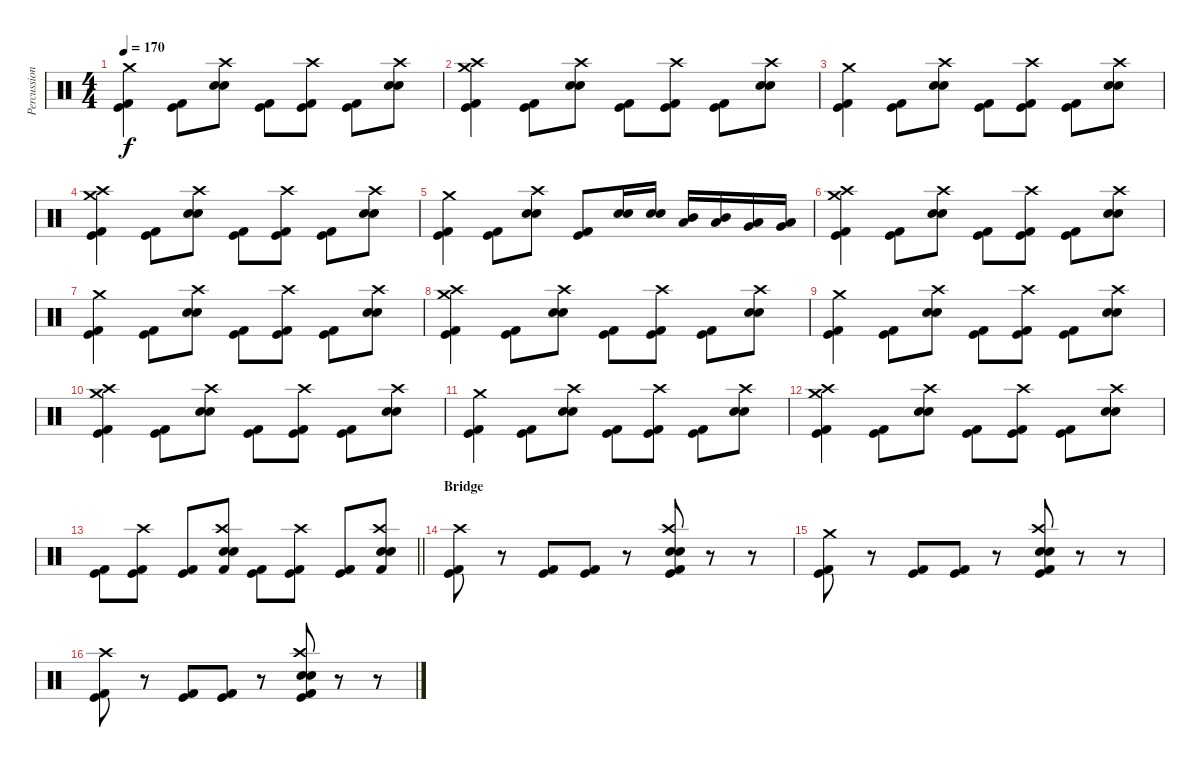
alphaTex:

\track ("Percussion" "Percussion") {instrument percussion}
\staff {score}
\articulation defaults
\ts (4 4)
\tempo 170
\clef neutral
\ks c
("Crash medium (hit)" "Kick (hit)" "Kick (hit) 2").4{dy f} ("Kick (hit)" "Kick (hit) 2").8 ("Crash high (hit)" "Snare (hit) 2" "Electric Snare (hit)").8 ("Kick (hit)" "Kick (hit) 2").8 ("Crash high (hit)" "Kick (hit)" "Kick (hit) 2").8 ("Kick (hit)" "Kick (hit) 2").8 ("Crash high (hit)" "Snare (hit) 2" "Electric Snare (hit)").8 |
("Crash medium (hit)" "Crash high (hit)" "Kick (hit)" "Kick (hit) 2").4 ("Kick (hit)" "Kick (hit) 2").8 ("Crash high (hit)" "Snare (hit) 2" "Electric Snare (hit)").8 ("Kick (hit)" "Kick (hit) 2").8 ("Crash high (hit)" "Kick (hit)" "Kick (hit) 2").8 ("Kick (hit)" "Kick (hit) 2").8 ("Crash high (hit)" "Snare (hit) 2" "Electric Snare (hit)").8 |
("Crash medium (hit)" "Kick (hit)" "Kick (hit) 2").4 ("Kick (hit)" "Kick (hit) 2").8 ("Crash high (hit)" "Snare (hit) 2" "Electric Snare (hit)").8 ("Kick (hit)" "Kick (hit) 2").8 ("Crash high (hit)" "Kick (hit)" "Kick (hit) 2").8 ("Kick (hit)" "Kick (hit) 2").8 ("Crash high (hit)" "Snare (hit) 2" "Electric Snare (hit)").8 |
("Crash medium (hit)" "Crash high (hit)" "Kick (hit)" "Kick (hit) 2").4 ("Kick (hit)" "Kick (hit) 2").8 ("Crash high (hit)" "Snare (hit) 2" "Electric Snare (hit)").8 ("Kick (hit)" "Kick (hit) 2").8 ("Crash high (hit)" "Kick (hit)" "Kick (hit) 2").8 ("Kick (hit)" "Kick (hit) 2").8 ("Crash high (hit)" "Snare (hit) 2" "Electric Snare (hit)").8 |
("Crash medium (hit)" "Kick (hit)" "Kick (hit) 2").4 ("Kick (hit)" "Kick (hit) 2").8 ("Crash high (hit)" "Snare (hit) 2" "Electric Snare (hit)").8 ("Kick (hit)" "Kick (hit) 2").8 ("Snare (hit) 2" "Electric Snare (hit)").16 ("Snare (hit) 2" "Electric Snare (hit)").16 ("Low Tom (hit)" "Mid Tom (hit)").16 ("Low Tom (hit)" "Mid Tom (hit)").16 ("Very Low Tom (hit)" "Low Tom (hit)").16 ("Very Low Tom (hit)" "Low Tom (hit)").16 |
("Crash medium (hit)" "Crash high (hit)" "Kick (hit)" "Kick (hit) 2").4 ("Kick (hit)" "Kick (hit) 2").8 ("Crash high (hit)" "Snare (hit) 2" "Electric Snare (hit)").8 ("Kick (hit)" "Kick (hit) 2").8 ("Crash high (hit)" "Kick (hit)" "Kick (hit) 2").8 ("Kick (hit)" "Kick (hit) 2").8 ("Crash high (hit)" "Snare (hit) 2" "Electric Snare (hit)").8 |
("Crash medium (hit)" "Kick (hit)" "Kick (hit) 2").4 ("Kick (hit)" "Kick (hit) 2").8 ("Crash high (hit)" "Snare (hit) 2" "Electric Snare (hit)").8 ("Kick (hit)" "Kick (hit) 2").8 ("Crash high (hit)" "Kick (hit)" "Kick (hit) 2").8 ("Kick (hit)" "Kick (hit) 2").8 ("Crash high (hit)" "Snare (hit) 2" "Electric Snare (hit)").8 |
("Crash medium (hit)" "Crash high (hit)" "Kick (hit)" "Kick (hit) 2").4 ("Kick (hit)" "Kick (hit) 2").8 ("Crash high (hit)" "Snare (hit) 2" "Electric Snare (hit)").8 ("Kick (hit)" "Kick (hit) 2").8 ("Crash high (hit)" "Kick (hit)" "Kick (hit) 2").8 ("Kick (hit)" "Kick (hit) 2").8 ("Crash high (hit)" "Snare (hit) 2" "Electric Snare (hit)").8 |
("Crash medium (hit)" "Kick (hit)" "Kick (hit) 2").4 ("Kick (hit)" "Kick (hit) 2").8 ("Crash high (hit)" "Snare (hit) 2" "Electric Snare (hit)").8 ("Kick (hit)" "Kick (hit) 2").8 ("Crash high (hit)" "Kick (hit)" "Kick (hit) 2").8 ("Kick (hit)" "Kick (hit) 2").8 ("Crash high (hit)" "Snare (hit) 2" "Electric Snare (hit)").8 |
("Crash medium (hit)" "Crash high (hit)" "Kick (hit)" "Kick (hit) 2").4 ("Kick (hit)" "Kick (hit) 2").8 ("Crash high (hit)" "Snare (hit) 2" "Electric Snare (hit)").8 ("Kick (hit)" "Kick (hit) 2").8 ("Crash high (hit)" "Kick (hit)" "Kick (hit) 2").8 ("Kick (hit)" "Kick (hit) 2").8 ("Crash high (hit)" "Snare (hit) 2" "Electric Snare (hit)").8 |
("Crash medium (hit)" "Kick (hit)" "Kick (hit) 2").4 ("Kick (hit)" "Kick (hit) 2").8 ("Crash high (hit)" "Snare (hit) 2" "Electric Snare (hit)").8 ("Kick (hit)" "Kick (hit) 2").8 ("Crash high (hit)" "Kick (hit)" "Kick (hit) 2").8 ("Kick (hit)" "Kick (hit) 2").8 ("Crash high (hit)" "Snare (hit) 2" "Electric Snare (hit)").8 |
("Crash medium (hit)" "Crash high (hit)" "Kick (hit)" "Kick (hit) 2").4 ("Kick (hit)" "Kick (hit) 2").8 ("Crash high (hit)" "Snare (hit) 2" "Electric Snare (hit)").8 ("Kick (hit)" "Kick (hit) 2").8 ("Crash high (hit)" "Kick (hit)" "Kick (hit) 2").8 ("Kick (hit)" "Kick (hit) 2").8 ("Crash high (hit)" "Snare (hit) 2" "Electric Snare (hit)").8 |
\barLineRight lightlight
("Kick (hit)" "Kick (hit) 2").8 ("Crash high (hit)" "Kick (hit)" "Kick (hit) 2").8 ("Kick (hit)" "Kick (hit) 2").8 ("Crash high (hit)" "Electric Snare (hit)" "Snare (hit) 2" "Kick (hit) 2").8 ("Kick (hit)" "Kick (hit) 2").8 ("Crash high (hit)" "Kick (hit)" "Kick (hit) 2").8 ("Kick (hit)" "Kick (hit) 2").8 ("Crash high (hit)" "Electric Snare (hit)" "Snare (hit) 2" "Kick (hit) 2").8 |
\section ("" "Bridge")
("Crash high (hit)" "Kick (hit)" "Kick (hit) 2").8 r.8 ("Kick (hit)" "Kick (hit) 2").8 ("Kick (hit)" "Kick (hit) 2").8 r.8 ("Crash high (hit)" "Snare (hit) 2" "Electric Snare (hit)" "Kick (hit)" "Kick (hit) 2").8 r.8 r.8 |
("Crash medium (hit)" "Kick (hit)" "Kick (hit) 2").8 r.8 ("Kick (hit)" "Kick (hit) 2").8 ("Kick (hit)" "Kick (hit) 2").8 r.8 ("Crash high (hit)" "Snare (hit) 2" "Electric Snare (hit)" "Kick (hit)" "Kick (hit) 2").8 r.8 r.8 |
("Crash high (hit)" "Kick (hit)" "Kick (hit) 2").8 r.8 ("Kick (hit)" "Kick (hit) 2").8 ("Kick (hit)" "Kick (hit) 2").8 r.8 ("Crash high (hit)" "Snare (hit) 2" "Electric Snare (hit)" "Kick (hit)" "Kick (hit) 2").8 r.8 r.8
